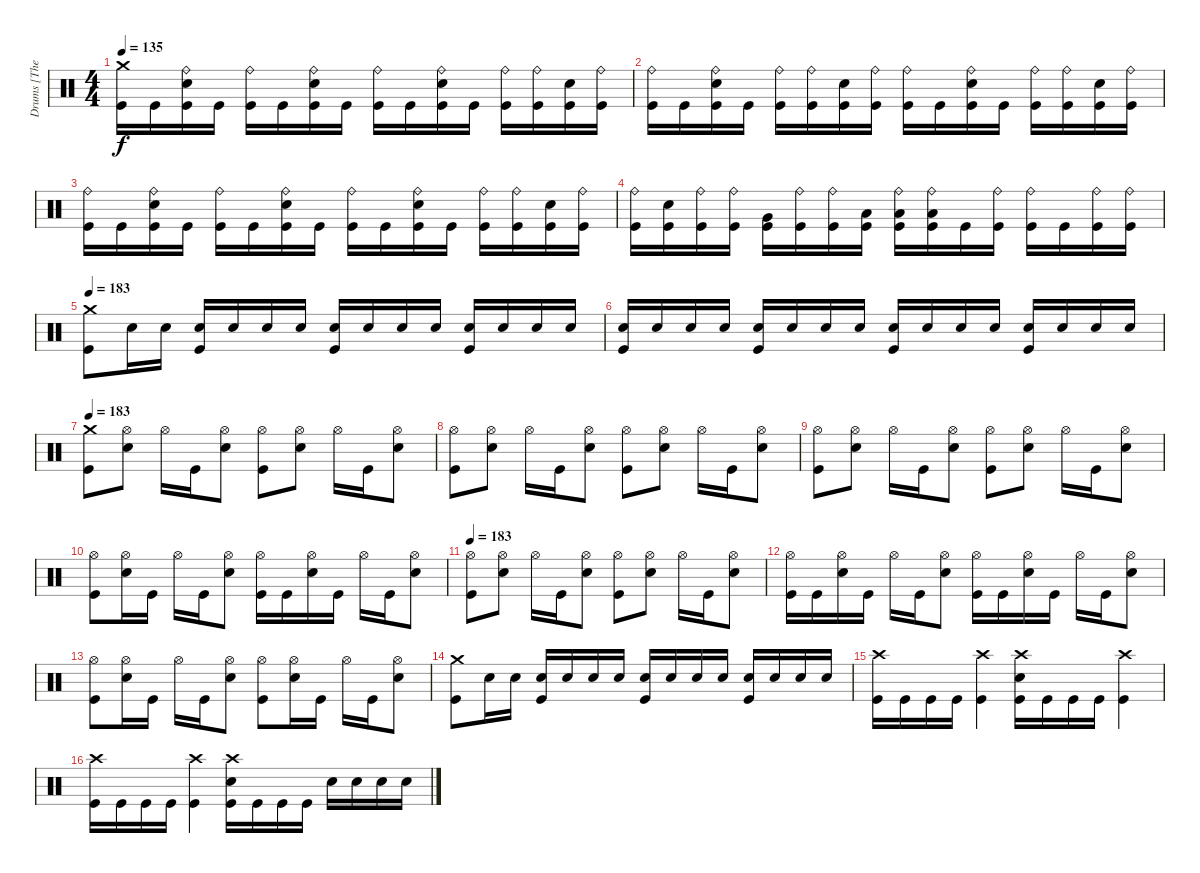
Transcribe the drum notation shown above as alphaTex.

\track ("Drums [The Rev]" "Drums [The") {instrument percussion}
\staff {score}
\articulation defaults
\ts (4 4)
\tempo 135
\clef neutral
\ks c
("Crash medium (hit)" "Kick (hit)").16{dy f} "Kick (hit)".16 ("Ride (bell)" "Snare (hit) 2" "Kick (hit)").16 "Kick (hit)".16 ("Ride (bell)" "Kick (hit)").16 "Kick (hit)".16 ("Ride (bell)" "Snare (hit) 2" "Kick (hit)").16 "Kick (hit)".16 ("Ride (bell)" "Kick (hit)").16 "Kick (hit)".16 ("Ride (bell)" "Snare (hit) 2" "Kick (hit)").16 "Kick (hit)".16 ("Ride (bell)" "Kick (hit)").16 ("Ride (bell)" "Kick (hit)").16 ("Snare (hit) 2" "Kick (hit)").16 ("Ride (bell)" "Kick (hit)").16 |
("Ride (bell)" "Kick (hit)").16 "Kick (hit)".16 ("Ride (bell)" "Snare (hit) 2" "Kick (hit)").16 "Kick (hit)".16 ("Ride (bell)" "Kick (hit)").16 ("Ride (bell)" "Kick (hit)").16 ("Snare (hit) 2" "Kick (hit)").16 ("Ride (bell)" "Kick (hit)").16 ("Ride (bell)" "Kick (hit)").16 "Kick (hit)".16 ("Ride (bell)" "Snare (hit) 2" "Kick (hit)").16 "Kick (hit)".16 ("Ride (bell)" "Kick (hit)").16 ("Ride (bell)" "Kick (hit)").16 ("Snare (hit) 2" "Kick (hit)").16 ("Ride (bell)" "Kick (hit)").16 |
("Ride (bell)" "Kick (hit)").16 "Kick (hit)".16 ("Ride (bell)" "Snare (hit) 2" "Kick (hit)").16 "Kick (hit)".16 ("Ride (bell)" "Kick (hit)").16 "Kick (hit)".16 ("Ride (bell)" "Snare (hit) 2" "Kick (hit)").16 "Kick (hit)".16 ("Ride (bell)" "Kick (hit)").16 "Kick (hit)".16 ("Ride (bell)" "Snare (hit) 2" "Kick (hit)").16 "Kick (hit)".16 ("Ride (bell)" "Kick (hit)").16 ("Ride (bell)" "Kick (hit)").16 ("Snare (hit) 2" "Kick (hit)").16 ("Ride (bell)" "Kick (hit)").16 |
("Ride (bell)" "Kick (hit)").16 ("Snare (hit) 2" "Kick (hit)").16 ("Ride (bell)" "Kick (hit)").16 ("Ride (bell)" "Kick (hit)").16 ("Very Low Tom (hit)" "Kick (hit)").16 ("Ride (bell)" "Kick (hit)").16 ("Ride (bell)" "Kick (hit)").16 ("Low Floor Tom (hit)" "Kick (hit)").16 ("Ride (bell)" "Low Floor Tom (hit)" "Kick (hit)").16 ("Ride (bell)" "Low Floor Tom (hit)" "Kick (hit)").16 "Kick (hit)".16 ("Ride (bell)" "Kick (hit)").16 ("Ride (bell)" "Kick (hit)").16 "Kick (hit)".16 ("Ride (bell)" "Kick (hit)").16 ("Ride (bell)" "Kick (hit)").16 |
\tempo 183
("Crash medium (hit)" "Kick (hit)").8 "Snare (hit) 2".16 "Snare (hit) 2".16 ("Snare (hit) 2" "Kick (hit)").16 "Snare (hit) 2".16 "Snare (hit) 2".16 "Snare (hit) 2".16 ("Snare (hit) 2" "Kick (hit)").16 "Snare (hit) 2".16 "Snare (hit) 2".16 "Snare (hit) 2".16 ("Snare (hit) 2" "Kick (hit)").16 "Snare (hit) 2".16 "Snare (hit) 2".16 "Snare (hit) 2".16 |
("Snare (hit) 2" "Kick (hit)").16 "Snare (hit) 2".16 "Snare (hit) 2".16 "Snare (hit) 2".16 ("Snare (hit) 2" "Kick (hit)").16 "Snare (hit) 2".16 "Snare (hit) 2".16 "Snare (hit) 2".16 ("Snare (hit) 2" "Kick (hit)").16 "Snare (hit) 2".16 "Snare (hit) 2".16 "Snare (hit) 2".16 ("Snare (hit) 2" "Kick (hit)").16 "Snare (hit) 2".16 "Snare (hit) 2".16 "Snare (hit) 2".16 |
\tempo 183
("Crash medium (hit)" "Kick (hit)").8 ("Hi-Hat (open)" "Snare (hit) 2").8 "Hi-Hat (open)".16 "Kick (hit)".16 ("Hi-Hat (open)" "Snare (hit) 2").8 ("Hi-Hat (open)" "Kick (hit)").8 ("Hi-Hat (open)" "Snare (hit) 2").8 "Hi-Hat (open)".16 "Kick (hit)".16 ("Hi-Hat (open)" "Snare (hit) 2").8 |
("Hi-Hat (open)" "Kick (hit)").8 ("Hi-Hat (open)" "Snare (hit) 2").8 "Hi-Hat (open)".16 "Kick (hit)".16 ("Hi-Hat (open)" "Snare (hit) 2").8 ("Hi-Hat (open)" "Kick (hit)").8 ("Hi-Hat (open)" "Snare (hit) 2").8 "Hi-Hat (open)".16 "Kick (hit)".16 ("Hi-Hat (open)" "Snare (hit) 2").8 |
("Hi-Hat (open)" "Kick (hit)").8 ("Hi-Hat (open)" "Snare (hit) 2").8 "Hi-Hat (open)".16 "Kick (hit)".16 ("Hi-Hat (open)" "Snare (hit) 2").8 ("Hi-Hat (open)" "Kick (hit)").8 ("Hi-Hat (open)" "Snare (hit) 2").8 "Hi-Hat (open)".16 "Kick (hit)".16 ("Hi-Hat (open)" "Snare (hit) 2").8 |
("Hi-Hat (open)" "Kick (hit)").8 ("Hi-Hat (open)" "Snare (hit) 2").16 "Kick (hit)".16 "Hi-Hat (open)".16 "Kick (hit)".16 ("Hi-Hat (open)" "Snare (hit) 2").8 ("Hi-Hat (open)" "Kick (hit)").16 "Kick (hit)".16 ("Hi-Hat (open)" "Snare (hit) 2").16 "Kick (hit)".16 "Hi-Hat (open)".16 "Kick (hit)".16 ("Hi-Hat (open)" "Snare (hit) 2").8 |
\tempo 183
("Hi-Hat (open)" "Kick (hit)").8 ("Hi-Hat (open)" "Snare (hit) 2").8 "Hi-Hat (open)".16 "Kick (hit)".16 ("Hi-Hat (open)" "Snare (hit) 2").8 ("Hi-Hat (open)" "Kick (hit)").8 ("Hi-Hat (open)" "Snare (hit) 2").8 "Hi-Hat (open)".16 "Kick (hit)".16 ("Hi-Hat (open)" "Snare (hit) 2").8 |
("Hi-Hat (open)" "Kick (hit)").16 "Kick (hit)".16 ("Hi-Hat (open)" "Snare (hit) 2").16 "Kick (hit)".16 "Hi-Hat (open)".16 "Kick (hit)".16 ("Hi-Hat (open)" "Snare (hit) 2").8 ("Hi-Hat (open)" "Kick (hit)").16 "Kick (hit)".16 ("Hi-Hat (open)" "Snare (hit) 2").16 "Kick (hit)".16 "Hi-Hat (open)".16 "Kick (hit)".16 ("Hi-Hat (open)" "Snare (hit) 2").8 |
("Hi-Hat (open)" "Kick (hit)").8 ("Hi-Hat (open)" "Snare (hit) 2").16 "Kick (hit)".16 "Hi-Hat (open)".16 "Kick (hit)".16 ("Hi-Hat (open)" "Snare (hit) 2").8 ("Hi-Hat (open)" "Kick (hit)").8 ("Hi-Hat (open)" "Snare (hit) 2").16 "Kick (hit)".16 "Hi-Hat (open)".16 "Kick (hit)".16 ("Hi-Hat (open)" "Snare (hit) 2").8 |
("Crash medium (hit)" "Kick (hit)").8 "Snare (hit) 2".16 "Snare (hit) 2".16 ("Snare (hit) 2" "Kick (hit)").16 "Snare (hit) 2".16 "Snare (hit) 2".16 "Snare (hit) 2".16 ("Snare (hit) 2" "Kick (hit)").16 "Snare (hit) 2".16 "Snare (hit) 2".16 "Snare (hit) 2".16 ("Snare (hit) 2" "Kick (hit)").16 "Snare (hit) 2".16 "Snare (hit) 2".16 "Snare (hit) 2".16 |
("Crash high (hit)" "Kick (hit)").16 "Kick (hit)".16 "Kick (hit)".16 "Kick (hit)".16 ("Crash high (hit)" "Kick (hit)").4 ("Crash high (hit)" "Snare (hit) 2" "Kick (hit)").16 "Kick (hit)".16 "Kick (hit)".16 "Kick (hit)".16 ("Crash high (hit)" "Kick (hit)").4 |
("Crash high (hit)" "Kick (hit)").16 "Kick (hit)".16 "Kick (hit)".16 "Kick (hit)".16 ("Crash high (hit)" "Kick (hit)").4 ("Crash high (hit)" "Snare (hit) 2" "Kick (hit)").16 "Kick (hit)".16 "Kick (hit)".16 "Kick (hit)".16 "Snare (hit) 2".16 "Snare (hit) 2".16 "Snare (hit) 2".16 "Snare (hit) 2".16
